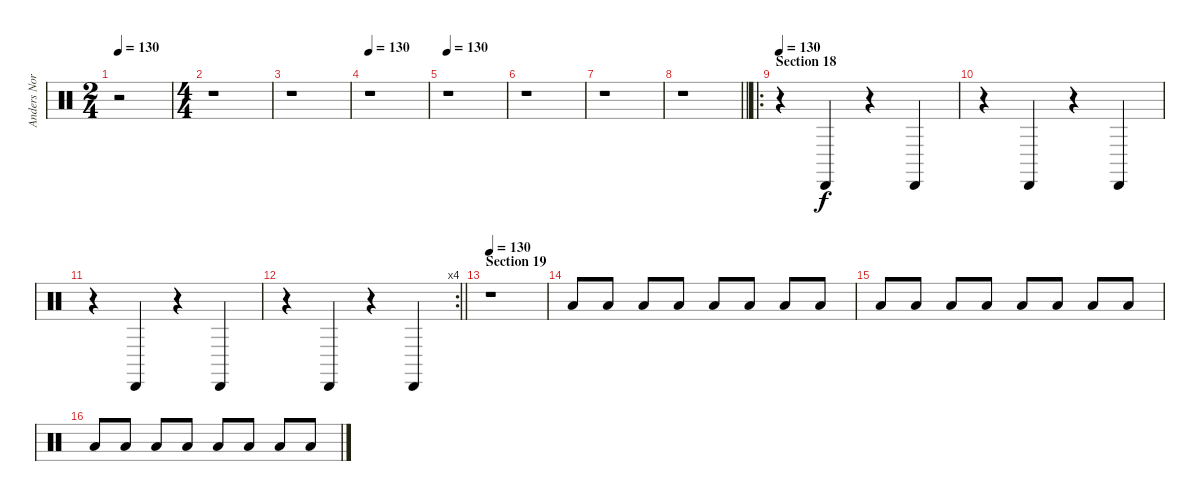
\track ("Anders Nordin" "Anders Nor") {instrument percussion}
\staff {score}
\articulation defaults
\ts (2 4)
\tempo 130
\clef neutral
\ks c
r.2{dy f} |
\ts (4 4)
r.1 |
r.1 |
\tempo 115
\tempo 130
r.1 |
\tempo 130
r.1 |
r.1 |
r.1 |
\barLineRight lightlight
r.1 |
\ro
\section ("" "Section 18")
\tempo 130
r.4 "Cabasa (hit)".4 r.4 "Cabasa (hit)".4 |
r.4 "Cabasa (hit)".4 r.4 "Cabasa (hit)".4 |
r.4 "Cabasa (hit)".4 r.4 "Cabasa (hit)".4 |
\rc 4
\barLineRight lightlight
r.4 "Cabasa (hit)".4 r.4 "Cabasa (hit)".4 |
\section ("" "Section 19")
\tempo 130
r.1 |
"Low Tom (hit)".8{volume 1} "Low Tom (hit)".8{volume 10} "Low Tom (hit)".8 "Low Tom (hit)".8 "Low Tom (hit)".8 "Low Tom (hit)".8 "Low Tom (hit)".8 "Low Tom (hit)".8 |
"Low Tom (hit)".8 "Low Tom (hit)".8 "Low Tom (hit)".8 "Low Tom (hit)".8 "Low Tom (hit)".8 "Low Tom (hit)".8 "Low Tom (hit)".8 "Low Tom (hit)".8 |
"Low Tom (hit)".8 "Low Tom (hit)".8 "Low Tom (hit)".8 "Low Tom (hit)".8 "Low Tom (hit)".8 "Low Tom (hit)".8 "Low Tom (hit)".8 "Low Tom (hit)".8
